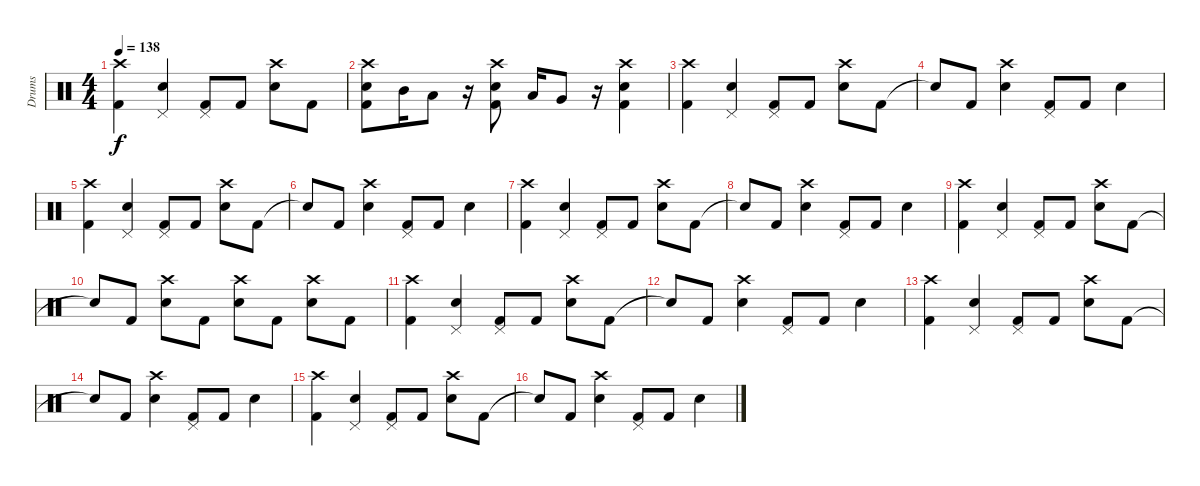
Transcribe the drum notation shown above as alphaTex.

\track ("Drums" "Drums") {instrument percussion}
\staff {score}
\articulation defaults
\ts (4 4)
\tempo 138
\clef neutral
\ks c
("Crash high (hit)" "Kick (hit) 2").4{dy f} ("Pedal Hi-Hat (hit)" "Snare (hit) 2").4 ("Pedal Hi-Hat (hit)" "Kick (hit) 2").8 "Kick (hit) 2".8 ("Crash high (hit)" "Snare (hit) 2").8 "Kick (hit) 2".8 |
("Crash high (hit)" "Snare (hit) 2" "Kick (hit) 2").8 "Mid Tom (hit)".16 "Low Tom (hit)".8 r.16 ("Crash high (hit)" "Snare (hit) 2" "Kick (hit) 2").8 "Low Tom (hit)".16 "Very Low Tom (hit)".8 r.16 ("Crash high (hit)" "Snare (hit) 2" "Kick (hit) 2").4 |
("Crash high (hit)" "Kick (hit) 2").4 ("Pedal Hi-Hat (hit)" "Snare (hit) 2").4 ("Pedal Hi-Hat (hit)" "Kick (hit) 2").8 "Kick (hit) 2".8 ("Crash high (hit)" "Snare (hit) 2").8 "Kick (hit) 2".8 |
"Snare (hit)"{t}.8 "Kick (hit) 2".8 ("Crash high (hit)" "Snare (hit) 2").4 ("Pedal Hi-Hat (hit)" "Kick (hit) 2").8 "Kick (hit) 2".8 "Snare (hit) 2".4 |
("Crash high (hit)" "Kick (hit) 2").4 ("Pedal Hi-Hat (hit)" "Snare (hit) 2").4 ("Pedal Hi-Hat (hit)" "Kick (hit) 2").8 "Kick (hit) 2".8 ("Crash high (hit)" "Snare (hit) 2").8 "Kick (hit) 2".8 |
"Snare (hit)"{t}.8 "Kick (hit) 2".8 ("Crash high (hit)" "Snare (hit) 2").4 ("Pedal Hi-Hat (hit)" "Kick (hit) 2").8 "Kick (hit) 2".8 "Snare (hit) 2".4 |
("Crash high (hit)" "Kick (hit) 2").4 ("Pedal Hi-Hat (hit)" "Snare (hit) 2").4 ("Pedal Hi-Hat (hit)" "Kick (hit) 2").8 "Kick (hit) 2".8 ("Crash high (hit)" "Snare (hit) 2").8 "Kick (hit) 2".8 |
"Snare (hit)"{t}.8 "Kick (hit) 2".8 ("Crash high (hit)" "Snare (hit) 2").4 ("Pedal Hi-Hat (hit)" "Kick (hit) 2").8 "Kick (hit) 2".8 "Snare (hit) 2".4 |
("Crash high (hit)" "Kick (hit) 2").4 ("Pedal Hi-Hat (hit)" "Snare (hit) 2").4 ("Pedal Hi-Hat (hit)" "Kick (hit) 2").8 "Kick (hit) 2".8 ("Crash high (hit)" "Snare (hit) 2").8 "Kick (hit) 2".8 |
"Snare (hit)"{t}.8 "Kick (hit) 2".8 ("Crash high (hit)" "Snare (hit) 2").8 "Kick (hit) 2".8 ("Crash high (hit)" "Snare (hit) 2").8 "Kick (hit) 2".8 ("Crash high (hit)" "Snare (hit) 2").8 "Kick (hit) 2".8 |
("Crash high (hit)" "Kick (hit) 2").4 ("Pedal Hi-Hat (hit)" "Snare (hit) 2").4 ("Pedal Hi-Hat (hit)" "Kick (hit) 2").8 "Kick (hit) 2".8 ("Crash high (hit)" "Snare (hit) 2").8 "Kick (hit) 2".8 |
"Snare (hit)"{t}.8 "Kick (hit) 2".8 ("Crash high (hit)" "Snare (hit) 2").4 ("Pedal Hi-Hat (hit)" "Kick (hit) 2").8 "Kick (hit) 2".8 "Snare (hit) 2".4 |
("Crash high (hit)" "Kick (hit) 2").4 ("Pedal Hi-Hat (hit)" "Snare (hit) 2").4 ("Pedal Hi-Hat (hit)" "Kick (hit) 2").8 "Kick (hit) 2".8 ("Crash high (hit)" "Snare (hit) 2").8 "Kick (hit) 2".8 |
"Snare (hit)"{t}.8 "Kick (hit) 2".8 ("Crash high (hit)" "Snare (hit) 2").4 ("Pedal Hi-Hat (hit)" "Kick (hit) 2").8 "Kick (hit) 2".8 "Snare (hit) 2".4 |
("Crash high (hit)" "Kick (hit) 2").4 ("Pedal Hi-Hat (hit)" "Snare (hit) 2").4 ("Pedal Hi-Hat (hit)" "Kick (hit) 2").8 "Kick (hit) 2".8 ("Crash high (hit)" "Snare (hit) 2").8 "Kick (hit) 2".8 |
"Snare (hit)"{t}.8 "Kick (hit) 2".8 ("Crash high (hit)" "Snare (hit) 2").4 ("Pedal Hi-Hat (hit)" "Kick (hit) 2").8 "Kick (hit) 2".8 "Snare (hit) 2".4
